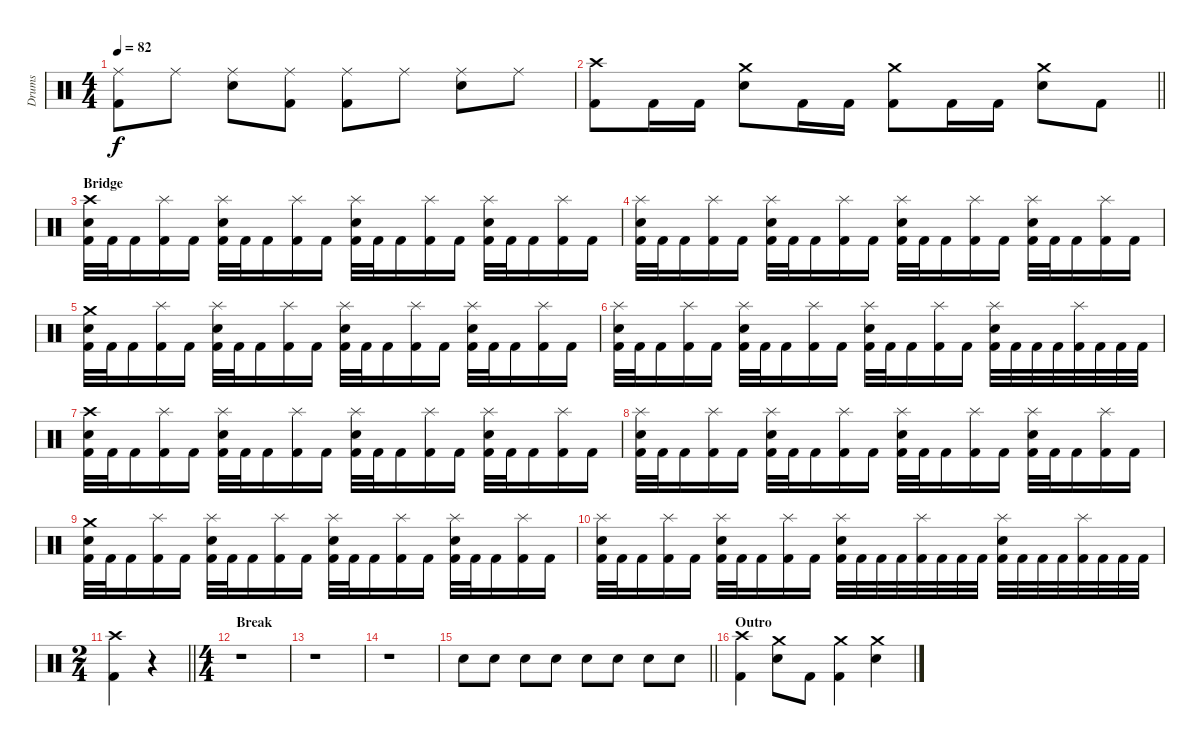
\track ("Drums" "Drums") {instrument percussion}
\staff {score}
\articulation defaults
\ts (4 4)
\tempo 82
\clef neutral
\ks c
("Ride (middle)" "Kick (hit) 2").8{dy f} "Ride (middle)".8 ("Ride (middle)" "Snare (hit) 2").8 ("Ride (middle)" "Kick (hit) 2").8 ("Ride (middle)" "Kick (hit) 2").8 "Ride (middle)".8 ("Ride (middle)" "Snare (hit) 2").8 "Ride (middle)".8 |
\barLineRight lightlight
("Crash high (hit)" "Kick (hit) 2").8 "Kick (hit) 2".16 "Kick (hit) 2".16 ("Crash medium (hit)" "Snare (hit) 2").8 "Kick (hit) 2".16 "Kick (hit) 2".16 ("Crash medium (hit)" "Kick (hit) 2").8 "Kick (hit) 2".16 "Kick (hit) 2".16 ("Crash medium (hit)" "Snare (hit) 2").8 "Kick (hit) 2".8 |
\section ("" "Bridge")
("Crash high (hit)" "Snare (hit) 2" "Kick (hit) 2").32 "Kick (hit) 2".32 "Kick (hit) 2".16 ("Splash (hit)" "Kick (hit) 2").16 "Kick (hit) 2".16 ("Splash (hit)" "Snare (hit) 2" "Kick (hit) 2").32 "Kick (hit) 2".32 "Kick (hit) 2".16 ("Splash (hit)" "Kick (hit) 2").16 "Kick (hit) 2".16 ("Splash (hit)" "Snare (hit) 2" "Kick (hit) 2").32 "Kick (hit) 2".32 "Kick (hit) 2".16 ("Splash (hit)" "Kick (hit) 2").16 "Kick (hit) 2".16 ("Splash (hit)" "Snare (hit) 2" "Kick (hit) 2").32 "Kick (hit) 2".32 "Kick (hit) 2".16 ("Splash (hit)" "Kick (hit) 2").16 "Kick (hit) 2".16 |
("Splash (hit)" "Snare (hit) 2" "Kick (hit) 2").32 "Kick (hit) 2".32 "Kick (hit) 2".16 ("Splash (hit)" "Kick (hit) 2").16 "Kick (hit) 2".16 ("Splash (hit)" "Snare (hit) 2" "Kick (hit) 2").32 "Kick (hit) 2".32 "Kick (hit) 2".16 ("Splash (hit)" "Kick (hit) 2").16 "Kick (hit) 2".16 ("Splash (hit)" "Snare (hit) 2" "Kick (hit) 2").32 "Kick (hit) 2".32 "Kick (hit) 2".16 ("Splash (hit)" "Kick (hit) 2").16 "Kick (hit) 2".16 ("Splash (hit)" "Snare (hit) 2" "Kick (hit) 2").32 "Kick (hit) 2".32 "Kick (hit) 2".16 ("Splash (hit)" "Kick (hit) 2").16 "Kick (hit) 2".16 |
("Crash medium (hit)" "Snare (hit) 2" "Kick (hit) 2").32 "Kick (hit) 2".32 "Kick (hit) 2".16 ("Splash (hit)" "Kick (hit) 2").16 "Kick (hit) 2".16 ("Splash (hit)" "Snare (hit) 2" "Kick (hit) 2").32 "Kick (hit) 2".32 "Kick (hit) 2".16 ("Splash (hit)" "Kick (hit) 2").16 "Kick (hit) 2".16 ("Splash (hit)" "Snare (hit) 2" "Kick (hit) 2").32 "Kick (hit) 2".32 "Kick (hit) 2".16 ("Splash (hit)" "Kick (hit) 2").16 "Kick (hit) 2".16 ("Splash (hit)" "Snare (hit) 2" "Kick (hit) 2").32 "Kick (hit) 2".32 "Kick (hit) 2".16 ("Splash (hit)" "Kick (hit) 2").16 "Kick (hit) 2".16 |
("Splash (hit)" "Snare (hit) 2" "Kick (hit) 2").32 "Kick (hit) 2".32 "Kick (hit) 2".16 ("Splash (hit)" "Kick (hit) 2").16 "Kick (hit) 2".16 ("Splash (hit)" "Snare (hit) 2" "Kick (hit) 2").32 "Kick (hit) 2".32 "Kick (hit) 2".16 ("Splash (hit)" "Kick (hit) 2").16 "Kick (hit) 2".16 ("Splash (hit)" "Snare (hit) 2" "Kick (hit) 2").32 "Kick (hit) 2".32 "Kick (hit) 2".16 ("Splash (hit)" "Kick (hit) 2").16 "Kick (hit) 2".16 ("Splash (hit)" "Snare (hit) 2" "Kick (hit) 2").32 "Kick (hit) 2".32 "Kick (hit) 2".32 "Kick (hit) 2".32 ("Splash (hit)" "Kick (hit) 2").32 "Kick (hit) 2".32 "Kick (hit) 2".32 "Kick (hit) 2".32 |
("Crash high (hit)" "Snare (hit) 2" "Kick (hit) 2").32 "Kick (hit) 2".32 "Kick (hit) 2".16 ("Splash (hit)" "Kick (hit) 2").16 "Kick (hit) 2".16 ("Splash (hit)" "Snare (hit) 2" "Kick (hit) 2").32 "Kick (hit) 2".32 "Kick (hit) 2".16 ("Splash (hit)" "Kick (hit) 2").16 "Kick (hit) 2".16 ("Splash (hit)" "Snare (hit) 2" "Kick (hit) 2").32 "Kick (hit) 2".32 "Kick (hit) 2".16 ("Splash (hit)" "Kick (hit) 2").16 "Kick (hit) 2".16 ("Splash (hit)" "Snare (hit) 2" "Kick (hit) 2").32 "Kick (hit) 2".32 "Kick (hit) 2".16 ("Splash (hit)" "Kick (hit) 2").16 "Kick (hit) 2".16 |
("Splash (hit)" "Snare (hit) 2" "Kick (hit) 2").32 "Kick (hit) 2".32 "Kick (hit) 2".16 ("Splash (hit)" "Kick (hit) 2").16 "Kick (hit) 2".16 ("Splash (hit)" "Snare (hit) 2" "Kick (hit) 2").32 "Kick (hit) 2".32 "Kick (hit) 2".16 ("Splash (hit)" "Kick (hit) 2").16 "Kick (hit) 2".16 ("Splash (hit)" "Snare (hit) 2" "Kick (hit) 2").32 "Kick (hit) 2".32 "Kick (hit) 2".16 ("Splash (hit)" "Kick (hit) 2").16 "Kick (hit) 2".16 ("Splash (hit)" "Snare (hit) 2" "Kick (hit) 2").32 "Kick (hit) 2".32 "Kick (hit) 2".16 ("Splash (hit)" "Kick (hit) 2").16 "Kick (hit) 2".16 |
("Crash medium (hit)" "Snare (hit) 2" "Kick (hit) 2").32 "Kick (hit) 2".32 "Kick (hit) 2".16 ("Splash (hit)" "Kick (hit) 2").16 "Kick (hit) 2".16 ("Splash (hit)" "Snare (hit) 2" "Kick (hit) 2").32 "Kick (hit) 2".32 "Kick (hit) 2".16 ("Splash (hit)" "Kick (hit) 2").16 "Kick (hit) 2".16 ("Splash (hit)" "Snare (hit) 2" "Kick (hit) 2").32 "Kick (hit) 2".32 "Kick (hit) 2".16 ("Splash (hit)" "Kick (hit) 2").16 "Kick (hit) 2".16 ("Splash (hit)" "Snare (hit) 2" "Kick (hit) 2").32 "Kick (hit) 2".32 "Kick (hit) 2".16 ("Splash (hit)" "Kick (hit) 2").16 "Kick (hit) 2".16 |
("Splash (hit)" "Snare (hit) 2" "Kick (hit) 2").32 "Kick (hit) 2".32 "Kick (hit) 2".16 ("Splash (hit)" "Kick (hit) 2").16 "Kick (hit) 2".16 ("Splash (hit)" "Snare (hit) 2" "Kick (hit) 2").32 "Kick (hit) 2".32 "Kick (hit) 2".16 ("Splash (hit)" "Kick (hit) 2").16 "Kick (hit) 2".16 ("Splash (hit)" "Snare (hit) 2" "Kick (hit) 2").32 "Kick (hit) 2".32 "Kick (hit) 2".32 "Kick (hit) 2".32 ("Splash (hit)" "Kick (hit) 2").32 "Kick (hit) 2".32 "Kick (hit) 2".32 "Kick (hit) 2".32 ("Splash (hit)" "Snare (hit) 2" "Kick (hit) 2").32 "Kick (hit) 2".32 "Kick (hit) 2".32 "Kick (hit) 2".32 ("Splash (hit)" "Kick (hit) 2").32 "Kick (hit) 2".32 "Kick (hit) 2".32 "Kick (hit) 2".32 |
\ts (2 4)
\barLineRight lightlight
("Crash high (hit)" "Kick (hit) 2").4 r.4 |
\ts (4 4)
\section ("" "Break")
r.1 |
r.1 |
r.1 |
\barLineRight lightlight "Snare (hit) 2".8 "Snare (hit) 2".8 "Snare (hit) 2".8 "Snare (hit) 2".8 "Snare (hit) 2".8 "Snare (hit) 2".8 "Snare (hit) 2".8 "Snare (hit) 2".8
|
\section ("" "Outro")
("Crash high (hit)" "Kick (hit) 2").4 ("Crash medium (hit)" "Snare (hit) 2").8 "Kick (hit) 2".8 ("Crash medium (hit)" "Kick (hit) 2").4 ("Crash medium (hit)" "Snare (hit) 2").4
